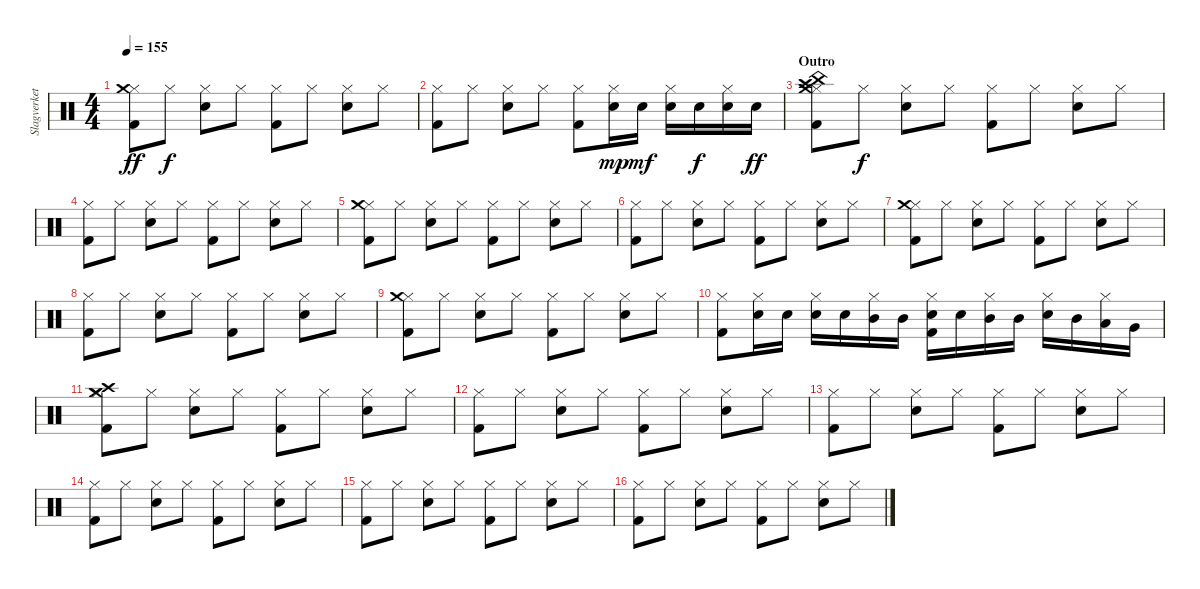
\track ("Slagverket!" "Slagverket") {instrument percussion}
\staff {score}
\articulation defaults
\ts (4 4)
\tempo 155
\clef neutral
\ks c
("Hi-Hat (closed)" "Crash medium (hit)" "Kick (hit) 2").8{dy ff} "Hi-Hat (closed)".8{dy f} ("Hi-Hat (closed)" "Electric Snare (hit)").8 "Hi-Hat (closed)".8 ("Hi-Hat (closed)" "Kick (hit) 2").8 "Hi-Hat (closed)".8 ("Hi-Hat (closed)" "Electric Snare (hit)").8 "Hi-Hat (closed)".8 |
("Hi-Hat (closed)" "Kick (hit) 2").8 "Hi-Hat (closed)".8 ("Hi-Hat (closed)" "Electric Snare (hit)").8 "Hi-Hat (closed)".8 ("Hi-Hat (closed)" "Kick (hit) 2").8 ("Hi-Hat (closed)" "Electric Snare (hit)").16{dy mp} "Electric Snare (hit)".16{dy mf} ("Hi-Hat (closed)" "Electric Snare (hit)").16 "Electric Snare (hit)".16{dy f} ("Hi-Hat (closed)" "Electric Snare (hit)").16 "Electric Snare (hit)".16{dy ff} |
\section ("" "Outro")
("Hi-Hat (closed)" "Crash medium (hit)" "China (hit)" "Crash high (hit)" "Kick (hit) 2").8 "Hi-Hat (closed)".8{dy f} ("Hi-Hat (closed)" "Electric Snare (hit)").8 "Hi-Hat (closed)".8 ("Hi-Hat (closed)" "Kick (hit) 2").8 "Hi-Hat (closed)".8 ("Hi-Hat (closed)" "Electric Snare (hit)").8 "Hi-Hat (closed)".8 |
("Hi-Hat (closed)" "Kick (hit) 2").8 "Hi-Hat (closed)".8 ("Hi-Hat (closed)" "Electric Snare (hit)").8 "Hi-Hat (closed)".8 ("Hi-Hat (closed)" "Kick (hit) 2").8 "Hi-Hat (closed)".8 ("Hi-Hat (closed)" "Electric Snare (hit)").8 "Hi-Hat (closed)".8 |
("Hi-Hat (closed)" "Crash medium (hit)" "Kick (hit) 2").8 "Hi-Hat (closed)".8 ("Hi-Hat (closed)" "Electric Snare (hit)").8 "Hi-Hat (closed)".8 ("Hi-Hat (closed)" "Kick (hit) 2").8 "Hi-Hat (closed)".8 ("Hi-Hat (closed)" "Electric Snare (hit)").8 "Hi-Hat (closed)".8 |
("Hi-Hat (closed)" "Kick (hit) 2").8 "Hi-Hat (closed)".8 ("Hi-Hat (closed)" "Electric Snare (hit)").8 "Hi-Hat (closed)".8 ("Hi-Hat (closed)" "Kick (hit) 2").8 "Hi-Hat (closed)".8 ("Hi-Hat (closed)" "Electric Snare (hit)").8 "Hi-Hat (closed)".8 |
("Hi-Hat (closed)" "Crash medium (hit)" "Kick (hit) 2").8 "Hi-Hat (closed)".8 ("Hi-Hat (closed)" "Electric Snare (hit)").8 "Hi-Hat (closed)".8 ("Hi-Hat (closed)" "Kick (hit) 2").8 "Hi-Hat (closed)".8 ("Hi-Hat (closed)" "Electric Snare (hit)").8 "Hi-Hat (closed)".8 |
("Hi-Hat (closed)" "Kick (hit) 2").8 "Hi-Hat (closed)".8 ("Hi-Hat (closed)" "Electric Snare (hit)").8 "Hi-Hat (closed)".8 ("Hi-Hat (closed)" "Kick (hit) 2").8 "Hi-Hat (closed)".8 ("Hi-Hat (closed)" "Electric Snare (hit)").8 "Hi-Hat (closed)".8 |
("Hi-Hat (closed)" "Crash medium (hit)" "Kick (hit) 2").8 "Hi-Hat (closed)".8 ("Hi-Hat (closed)" "Electric Snare (hit)").8 "Hi-Hat (closed)".8 ("Hi-Hat (closed)" "Kick (hit) 2").8 "Hi-Hat (closed)".8 ("Hi-Hat (closed)" "Electric Snare (hit)").8 "Hi-Hat (closed)".8 |
("Hi-Hat (closed)" "Kick (hit) 2").8 ("Hi-Hat (closed)" "Electric Snare (hit)").16 "Electric Snare (hit)".16 ("Hi-Hat (closed)" "Electric Snare (hit)").16 "Electric Snare (hit)".16 ("Hi-Hat (closed)" "Mid Tom (hit)").16 "Mid Tom (hit)".16 ("Hi-Hat (closed)" "Electric Snare (hit)" "Kick (hit) 2").16 "Electric Snare (hit)".16 ("Hi-Hat (closed)" "Mid Tom (hit)").16 "Mid Tom (hit)".16 ("Hi-Hat (closed)" "Electric Snare (hit)").16 "Mid Tom (hit)".16 ("Hi-Hat (closed)" "Low Tom (hit)").16 "Very Low Tom (hit)".16 |
\section ("" "")
("Hi-Hat (closed)" "Crash medium (hit)" "Crash high (hit)" "Kick (hit) 2").8 "Hi-Hat (closed)".8 ("Hi-Hat (closed)" "Electric Snare (hit)").8 "Hi-Hat (closed)".8 ("Hi-Hat (closed)" "Kick (hit) 2").8 "Hi-Hat (closed)".8 ("Hi-Hat (closed)" "Electric Snare (hit)").8 "Hi-Hat (closed)".8 |
("Hi-Hat (closed)" "Kick (hit) 2").8 "Hi-Hat (closed)".8 ("Hi-Hat (closed)" "Electric Snare (hit)").8 "Hi-Hat (closed)".8 ("Hi-Hat (closed)" "Kick (hit) 2").8 "Hi-Hat (closed)".8 ("Hi-Hat (closed)" "Electric Snare (hit)").8 "Hi-Hat (closed)".8 |
("Hi-Hat (closed)" "Kick (hit) 2").8 "Hi-Hat (closed)".8 ("Hi-Hat (closed)" "Electric Snare (hit)").8 "Hi-Hat (closed)".8 ("Hi-Hat (closed)" "Kick (hit) 2").8 "Hi-Hat (closed)".8 ("Hi-Hat (closed)" "Electric Snare (hit)").8 "Hi-Hat (closed)".8 |
("Hi-Hat (closed)" "Kick (hit) 2").8 "Hi-Hat (closed)".8 ("Hi-Hat (closed)" "Electric Snare (hit)").8 "Hi-Hat (closed)".8 ("Hi-Hat (closed)" "Kick (hit) 2").8 "Hi-Hat (closed)".8 ("Hi-Hat (closed)" "Electric Snare (hit)").8 "Hi-Hat (closed)".8 |
("Hi-Hat (closed)" "Kick (hit) 2").8 "Hi-Hat (closed)".8 ("Hi-Hat (closed)" "Electric Snare (hit)").8 "Hi-Hat (closed)".8 ("Hi-Hat (closed)" "Kick (hit) 2").8 "Hi-Hat (closed)".8 ("Hi-Hat (closed)" "Electric Snare (hit)").8 "Hi-Hat (closed)".8 |
("Hi-Hat (closed)" "Kick (hit) 2").8 "Hi-Hat (closed)".8 ("Hi-Hat (closed)" "Electric Snare (hit)").8 "Hi-Hat (closed)".8 ("Hi-Hat (closed)" "Kick (hit) 2").8 "Hi-Hat (closed)".8 ("Hi-Hat (closed)" "Electric Snare (hit)").8 "Hi-Hat (closed)".8
